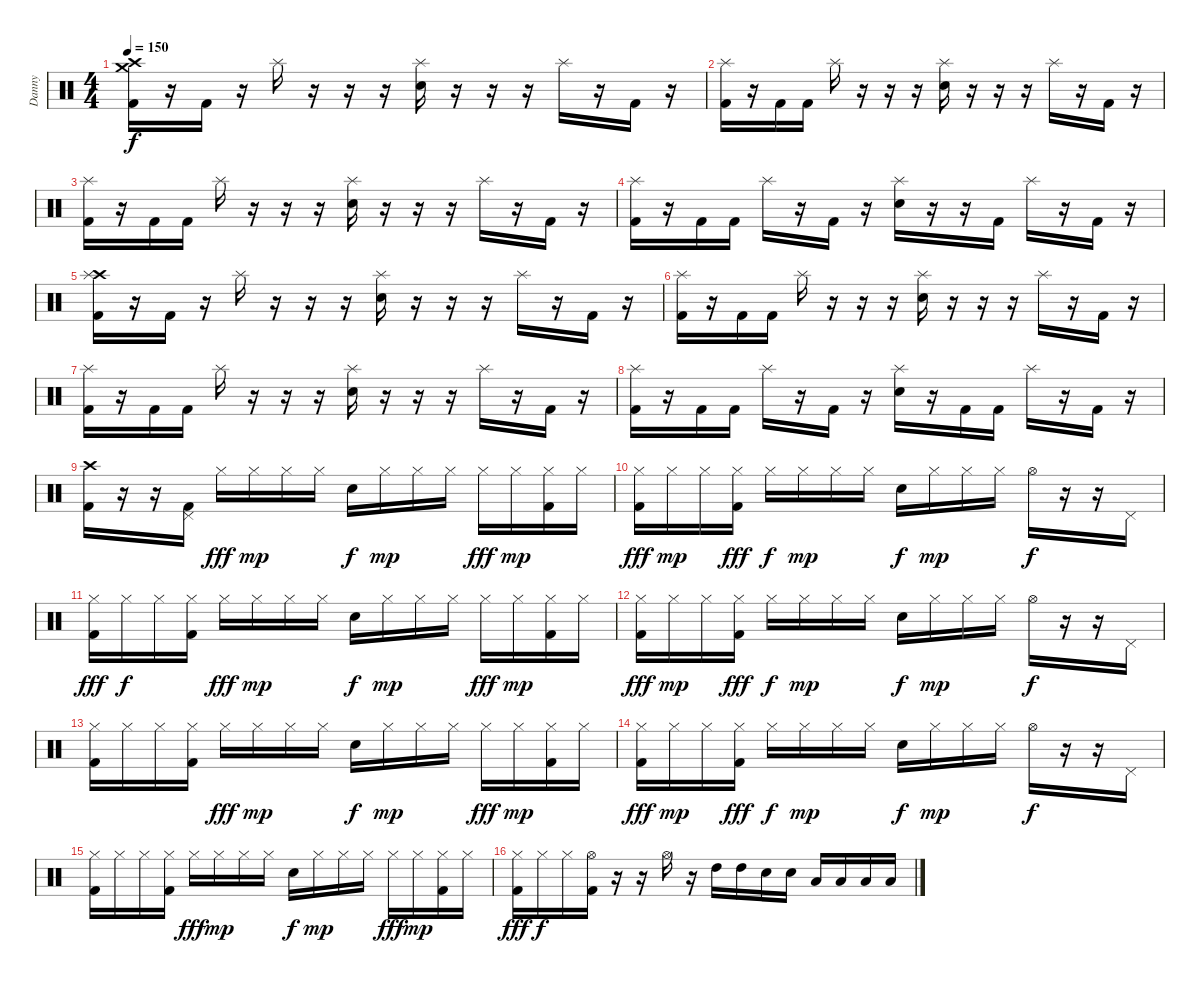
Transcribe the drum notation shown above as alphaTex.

\track ("Danny" "Danny") {instrument percussion}
\staff {score}
\articulation defaults
\ts (4 4)
\tempo 150
\clef neutral
\ks c
("Crash high (hit)" "Crash medium (hit)" "Kick (hit) 2").16{dy f} r.16 "Kick (hit) 2".16 r.16 "Splash (hit)".16 r.16 r.16 r.16 ("Splash (hit)" "Snare (hit) 2").16 r.16 r.16 r.16 "Splash (hit)".16 r.16 "Kick (hit) 2".16 r.16 |
("Splash (hit)" "Kick (hit) 2").16 r.16 "Kick (hit) 2".16 "Kick (hit) 2".16 "Splash (hit)".16 r.16 r.16 r.16 ("Splash (hit)" "Snare (hit) 2").16 r.16 r.16 r.16 "Splash (hit)".16 r.16 "Kick (hit) 2".16 r.16 |
("Splash (hit)" "Kick (hit) 2").16 r.16 "Kick (hit) 2".16 "Kick (hit) 2".16 "Splash (hit)".16 r.16 r.16 r.16 ("Splash (hit)" "Snare (hit) 2").16 r.16 r.16 r.16 "Splash (hit)".16 r.16 "Kick (hit) 2".16 r.16 |
("Splash (hit)" "Kick (hit) 2").16 r.16 "Kick (hit) 2".16 "Kick (hit) 2".16 "Splash (hit)".16 r.16 "Kick (hit) 2".16 r.16 ("Splash (hit)" "Snare (hit) 2").16 r.16 r.16 "Kick (hit) 2".16 "Splash (hit)".16 r.16 "Kick (hit) 2".16 r.16 |
("Crash high (hit)" "Splash (hit)" "Kick (hit) 2").16 r.16 "Kick (hit) 2".16 r.16 "Splash (hit)".16 r.16 r.16 r.16 ("Splash (hit)" "Snare (hit) 2").16 r.16 r.16 r.16 "Splash (hit)".16 r.16 "Kick (hit) 2".16 r.16 |
("Splash (hit)" "Kick (hit) 2").16 r.16 "Kick (hit) 2".16 "Kick (hit) 2".16 "Splash (hit)".16 r.16 r.16 r.16 ("Splash (hit)" "Snare (hit) 2").16 r.16 r.16 r.16 "Splash (hit)".16 r.16 "Kick (hit) 2".16 r.16 |
("Splash (hit)" "Kick (hit) 2").16 r.16 "Kick (hit) 2".16 "Kick (hit) 2".16 "Splash (hit)".16 r.16 r.16 r.16 ("Splash (hit)" "Snare (hit) 2").16 r.16 r.16 r.16 "Splash (hit)".16 r.16 "Kick (hit) 2".16 r.16 |
("Splash (hit)" "Kick (hit) 2").16 r.16 "Kick (hit) 2".16 "Kick (hit) 2".16 "Splash (hit)".16 r.16 "Kick (hit) 2".16 r.16 ("Splash (hit)" "Snare (hit) 2").16 r.16 "Kick (hit) 2".16 "Kick (hit) 2".16 "Splash (hit)".16 r.16 "Kick (hit) 2".16 r.16 |
("Crash high (hit)" "Kick (hit) 2").16 r.16 r.16 ("Pedal Hi-Hat (hit)" "Kick (hit) 2").16 "Hi-Hat (closed)".16{dy fff} "Hi-Hat (closed)".16{dy mp} "Hi-Hat (closed)".16 "Hi-Hat (closed)".16 "Snare (hit) 2".16{dy f} "Hi-Hat (closed)".16{dy mp} "Hi-Hat (closed)".16 "Hi-Hat (closed)".16 "Hi-Hat (closed)".16{dy fff} "Hi-Hat (closed)".16{dy mp} ("Hi-Hat (closed)" "Kick (hit) 2").16 "Hi-Hat (closed)".16 |
("Hi-Hat (closed)" "Kick (hit) 2").16{dy fff} "Hi-Hat (closed)".16{dy mp} "Hi-Hat (closed)".16 ("Hi-Hat (closed)" "Kick (hit) 2").16{dy fff} "Hi-Hat (closed)".16{dy f} "Hi-Hat (closed)".16{dy mp} "Hi-Hat (closed)".16 "Hi-Hat (closed)".16 "Snare (hit) 2".16{dy f} "Hi-Hat (closed)".16{dy mp} "Hi-Hat (closed)".16 "Hi-Hat (closed)".16 "Hi-Hat (open)".16{dy f} r.16 r.16 "Pedal Hi-Hat (hit)".16 |
("Hi-Hat (closed)" "Kick (hit) 2").16{dy fff} "Hi-Hat (closed)".16{dy f} "Hi-Hat (closed)".16 ("Hi-Hat (closed)" "Kick (hit) 2").16 "Hi-Hat (closed)".16{dy fff} "Hi-Hat (closed)".16{dy mp} "Hi-Hat (closed)".16 "Hi-Hat (closed)".16 "Snare (hit) 2".16{dy f} "Hi-Hat (closed)".16{dy mp} "Hi-Hat (closed)".16 "Hi-Hat (closed)".16 "Hi-Hat (closed)".16{dy fff} "Hi-Hat (closed)".16{dy mp} ("Hi-Hat (closed)" "Kick (hit) 2").16 "Hi-Hat (closed)".16 |
("Hi-Hat (closed)" "Kick (hit) 2").16{dy fff} "Hi-Hat (closed)".16{dy mp} "Hi-Hat (closed)".16 ("Hi-Hat (closed)" "Kick (hit) 2").16{dy fff} "Hi-Hat (closed)".16{dy f} "Hi-Hat (closed)".16{dy mp} "Hi-Hat (closed)".16 "Hi-Hat (closed)".16 "Snare (hit) 2".16{dy f} "Hi-Hat (closed)".16{dy mp} "Hi-Hat (closed)".16 "Hi-Hat (closed)".16 "Hi-Hat (open)".16{dy f} r.16 r.16 "Pedal Hi-Hat (hit)".16 |
("Hi-Hat (closed)" "Kick (hit) 2").16 "Hi-Hat (closed)".16 "Hi-Hat (closed)".16 ("Hi-Hat (closed)" "Kick (hit) 2").16 "Hi-Hat (closed)".16{dy fff} "Hi-Hat (closed)".16{dy mp} "Hi-Hat (closed)".16 "Hi-Hat (closed)".16 "Snare (hit) 2".16{dy f} "Hi-Hat (closed)".16{dy mp} "Hi-Hat (closed)".16 "Hi-Hat (closed)".16 "Hi-Hat (closed)".16{dy fff} "Hi-Hat (closed)".16{dy mp} ("Hi-Hat (closed)" "Kick (hit) 2").16 "Hi-Hat (closed)".16 |
("Hi-Hat (closed)" "Kick (hit) 2").16{dy fff} "Hi-Hat (closed)".16{dy mp} "Hi-Hat (closed)".16 ("Hi-Hat (closed)" "Kick (hit) 2").16{dy fff} "Hi-Hat (closed)".16{dy f} "Hi-Hat (closed)".16{dy mp} "Hi-Hat (closed)".16 "Hi-Hat (closed)".16 "Snare (hit) 2".16{dy f} "Hi-Hat (closed)".16{dy mp} "Hi-Hat (closed)".16 "Hi-Hat (closed)".16 "Hi-Hat (open)".16{dy f} r.16 r.16 "Pedal Hi-Hat (hit)".16 |
("Hi-Hat (closed)" "Kick (hit) 2").16 "Hi-Hat (closed)".16 "Hi-Hat (closed)".16 ("Hi-Hat (closed)" "Kick (hit) 2").16 "Hi-Hat (closed)".16{dy fff} "Hi-Hat (closed)".16{dy mp} "Hi-Hat (closed)".16 "Hi-Hat (closed)".16 "Snare (hit) 2".16{dy f} "Hi-Hat (closed)".16{dy mp} "Hi-Hat (closed)".16 "Hi-Hat (closed)".16 "Hi-Hat (closed)".16{dy fff} "Hi-Hat (closed)".16{dy mp} ("Hi-Hat (closed)" "Kick (hit) 2").16 "Hi-Hat (closed)".16 |
("Hi-Hat (closed)" "Kick (hit) 2").16{dy fff} "Hi-Hat (closed)".16{dy f} "Hi-Hat (closed)".16 ("Hi-Hat (open)" "Kick (hit) 2").16 r.16 r.16 "Hi-Hat (open)".16 r.16 "High Tom (hit)".16 "High Tom (hit)".16 "Snare (hit) 2".16 "Snare (hit) 2".16 "Low Tom (hit)".16 "Low Tom (hit)".16 "Low Tom (hit)".16 "Low Tom (hit)".16
